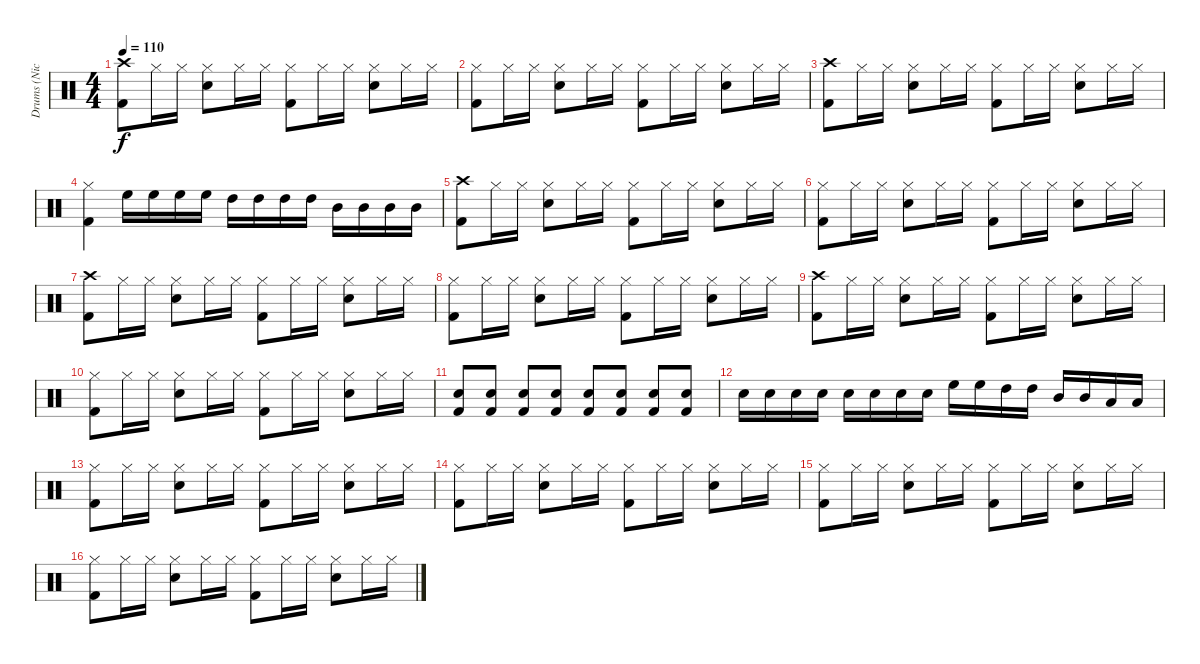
\track ("Drums (Nicko)" "Drums (Nic") {instrument percussion}
\staff {score}
\articulation defaults
\ts (4 4)
\tempo 110
\clef neutral
\ks c
("Crash high (hit)" "Kick (hit) 2").8{dy f} "Hi-Hat (closed)".16 "Hi-Hat (closed)".16 ("Hi-Hat (closed)" "Snare (hit) 2").8 "Hi-Hat (closed)".16 "Hi-Hat (closed)".16 ("Hi-Hat (closed)" "Kick (hit) 2").8 "Hi-Hat (closed)".16 "Hi-Hat (closed)".16 ("Hi-Hat (closed)" "Snare (hit) 2").8 "Hi-Hat (closed)".16 "Hi-Hat (closed)".16 |
("Hi-Hat (closed)" "Kick (hit) 2").8 "Hi-Hat (closed)".16 "Hi-Hat (closed)".16 ("Hi-Hat (closed)" "Snare (hit) 2").8 "Hi-Hat (closed)".16 "Hi-Hat (closed)".16 ("Hi-Hat (closed)" "Kick (hit) 2").8 "Hi-Hat (closed)".16 "Hi-Hat (closed)".16 ("Hi-Hat (closed)" "Snare (hit) 2").8 "Hi-Hat (closed)".16 "Hi-Hat (closed)".16 |
("Crash high (hit)" "Kick (hit) 2").8 "Hi-Hat (closed)".16 "Hi-Hat (closed)".16 ("Hi-Hat (closed)" "Snare (hit) 2").8 "Hi-Hat (closed)".16 "Hi-Hat (closed)".16 ("Hi-Hat (closed)" "Kick (hit) 2").8 "Hi-Hat (closed)".16 "Hi-Hat (closed)".16 ("Hi-Hat (closed)" "Snare (hit) 2").8 "Hi-Hat (closed)".16 "Hi-Hat (closed)".16 |
("Hi-Hat (closed)" "Kick (hit) 2").4 "High Floor Tom (hit)".16 "High Floor Tom (hit)".16 "High Floor Tom (hit)".16 "High Floor Tom (hit)".16 "High Tom (hit)".16 "High Tom (hit)".16 "High Tom (hit)".16 "High Tom (hit)".16 "Mid Tom (hit)".16 "Mid Tom (hit)".16 "Mid Tom (hit)".16 "Mid Tom (hit)".16 |
("Crash high (hit)" "Kick (hit) 2").8 "Hi-Hat (closed)".16 "Hi-Hat (closed)".16 ("Hi-Hat (closed)" "Snare (hit) 2").8 "Hi-Hat (closed)".16 "Hi-Hat (closed)".16 ("Hi-Hat (closed)" "Kick (hit) 2").8 "Hi-Hat (closed)".16 "Hi-Hat (closed)".16 ("Hi-Hat (closed)" "Snare (hit) 2").8 "Hi-Hat (closed)".16 "Hi-Hat (closed)".16 |
("Hi-Hat (closed)" "Kick (hit) 2").8 "Hi-Hat (closed)".16 "Hi-Hat (closed)".16 ("Hi-Hat (closed)" "Snare (hit) 2").8 "Hi-Hat (closed)".16 "Hi-Hat (closed)".16 ("Hi-Hat (closed)" "Kick (hit) 2").8 "Hi-Hat (closed)".16 "Hi-Hat (closed)".16 ("Hi-Hat (closed)" "Snare (hit) 2").8 "Hi-Hat (closed)".16 "Hi-Hat (closed)".16 |
("Crash high (hit)" "Kick (hit) 2").8 "Hi-Hat (closed)".16 "Hi-Hat (closed)".16 ("Hi-Hat (closed)" "Snare (hit) 2").8 "Hi-Hat (closed)".16 "Hi-Hat (closed)".16 ("Hi-Hat (closed)" "Kick (hit) 2").8 "Hi-Hat (closed)".16 "Hi-Hat (closed)".16 ("Hi-Hat (closed)" "Snare (hit) 2").8 "Hi-Hat (closed)".16 "Hi-Hat (closed)".16 |
("Hi-Hat (closed)" "Kick (hit) 2").8 "Hi-Hat (closed)".16 "Hi-Hat (closed)".16 ("Hi-Hat (closed)" "Snare (hit) 2").8 "Hi-Hat (closed)".16 "Hi-Hat (closed)".16 ("Hi-Hat (closed)" "Kick (hit) 2").8 "Hi-Hat (closed)".16 "Hi-Hat (closed)".16 ("Hi-Hat (closed)" "Snare (hit) 2").8 "Hi-Hat (closed)".16 "Hi-Hat (closed)".16 |
("Crash high (hit)" "Kick (hit) 2").8 "Hi-Hat (closed)".16 "Hi-Hat (closed)".16 ("Hi-Hat (closed)" "Snare (hit) 2").8 "Hi-Hat (closed)".16 "Hi-Hat (closed)".16 ("Hi-Hat (closed)" "Kick (hit) 2").8 "Hi-Hat (closed)".16 "Hi-Hat (closed)".16 ("Hi-Hat (closed)" "Snare (hit) 2").8 "Hi-Hat (closed)".16 "Hi-Hat (closed)".16 |
("Hi-Hat (closed)" "Kick (hit) 2").8 "Hi-Hat (closed)".16 "Hi-Hat (closed)".16 ("Hi-Hat (closed)" "Snare (hit) 2").8 "Hi-Hat (closed)".16 "Hi-Hat (closed)".16 ("Hi-Hat (closed)" "Kick (hit) 2").8 "Hi-Hat (closed)".16 "Hi-Hat (closed)".16 ("Hi-Hat (closed)" "Snare (hit) 2").8 "Hi-Hat (closed)".16 "Hi-Hat (closed)".16 |
("Kick (hit) 2" "Snare (hit) 2").8 ("Kick (hit) 2" "Snare (hit) 2").8 ("Kick (hit) 2" "Snare (hit) 2").8 ("Kick (hit) 2" "Snare (hit) 2").8 ("Kick (hit) 2" "Snare (hit) 2").8 ("Kick (hit) 2" "Snare (hit) 2").8 ("Kick (hit) 2" "Snare (hit) 2").8 ("Kick (hit) 2" "Snare (hit) 2").8 |
"Snare (hit) 2".16 "Snare (hit) 2".16 "Snare (hit) 2".16 "Snare (hit) 2".16 "Snare (hit) 2".16 "Snare (hit) 2".16 "Snare (hit) 2".16 "Snare (hit) 2".16 "High Floor Tom (hit)".16 "High Floor Tom (hit)".16 "High Tom (hit)".16 "High Tom (hit)".16 "Mid Tom (hit)".16 "Mid Tom (hit)".16 "Low Tom (hit)".16 "Low Tom (hit)".16 |
("Hi-Hat (closed)" "Kick (hit) 2").8 "Hi-Hat (closed)".16 "Hi-Hat (closed)".16 ("Hi-Hat (closed)" "Snare (hit) 2").8 "Hi-Hat (closed)".16 "Hi-Hat (closed)".16 ("Hi-Hat (closed)" "Kick (hit) 2").8 "Hi-Hat (closed)".16 "Hi-Hat (closed)".16 ("Hi-Hat (closed)" "Snare (hit) 2").8 "Hi-Hat (closed)".16 "Hi-Hat (closed)".16 |
("Hi-Hat (closed)" "Kick (hit) 2").8 "Hi-Hat (closed)".16 "Hi-Hat (closed)".16 ("Hi-Hat (closed)" "Snare (hit) 2").8 "Hi-Hat (closed)".16 "Hi-Hat (closed)".16 ("Hi-Hat (closed)" "Kick (hit) 2").8 "Hi-Hat (closed)".16 "Hi-Hat (closed)".16 ("Hi-Hat (closed)" "Snare (hit) 2").8 "Hi-Hat (closed)".16 "Hi-Hat (closed)".16 |
("Hi-Hat (closed)" "Kick (hit) 2").8 "Hi-Hat (closed)".16 "Hi-Hat (closed)".16 ("Hi-Hat (closed)" "Snare (hit) 2").8 "Hi-Hat (closed)".16 "Hi-Hat (closed)".16 ("Hi-Hat (closed)" "Kick (hit) 2").8 "Hi-Hat (closed)".16 "Hi-Hat (closed)".16 ("Hi-Hat (closed)" "Snare (hit) 2").8 "Hi-Hat (closed)".16 "Hi-Hat (closed)".16 |
("Hi-Hat (closed)" "Kick (hit) 2").8 "Hi-Hat (closed)".16 "Hi-Hat (closed)".16 ("Hi-Hat (closed)" "Snare (hit) 2").8 "Hi-Hat (closed)".16 "Hi-Hat (closed)".16 ("Hi-Hat (closed)" "Kick (hit) 2").8 "Hi-Hat (closed)".16 "Hi-Hat (closed)".16 ("Hi-Hat (closed)" "Snare (hit) 2").8 "Hi-Hat (closed)".16 "Hi-Hat (closed)".16
